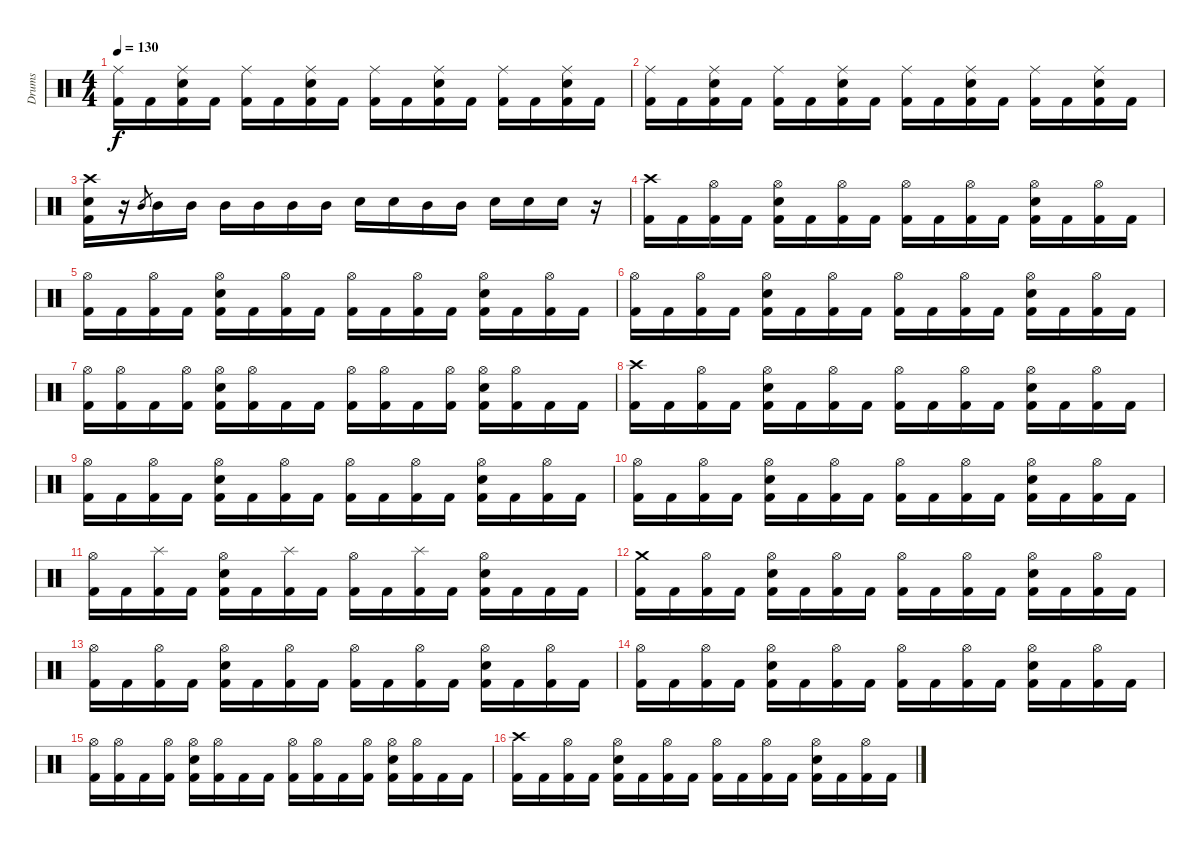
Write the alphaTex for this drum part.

\track ("Drums" "Drums") {instrument percussion}
\staff {score}
\articulation defaults
\ts (4 4)
\tempo 130
\clef neutral
\ks c
("Ride (middle)" "Kick (hit) 2").16{dy f} "Kick (hit) 2".16 ("Ride (middle)" "Electric Snare (hit)" "Kick (hit) 2").16 "Kick (hit) 2".16 ("Ride (middle)" "Kick (hit) 2").16 "Kick (hit) 2".16 ("Ride (middle)" "Electric Snare (hit)" "Kick (hit) 2").16 "Kick (hit) 2".16 ("Ride (middle)" "Kick (hit) 2").16 "Kick (hit) 2".16 ("Ride (middle)" "Electric Snare (hit)" "Kick (hit) 2").16 "Kick (hit) 2".16 ("Ride (middle)" "Kick (hit) 2").16 "Kick (hit) 2".16 ("Ride (middle)" "Electric Snare (hit)" "Kick (hit) 2").16 "Kick (hit) 2".16 |
("Ride (middle)" "Kick (hit) 2").16 "Kick (hit) 2".16 ("Ride (middle)" "Electric Snare (hit)" "Kick (hit) 2").16 "Kick (hit) 2".16 ("Ride (middle)" "Kick (hit) 2").16 "Kick (hit) 2".16 ("Ride (middle)" "Electric Snare (hit)" "Kick (hit) 2").16 "Kick (hit) 2".16 ("Ride (middle)" "Kick (hit) 2").16 "Kick (hit) 2".16 ("Ride (middle)" "Electric Snare (hit)" "Kick (hit) 2").16 "Kick (hit) 2".16 ("Ride (middle)" "Kick (hit) 2").16 "Kick (hit) 2".16 ("Ride (middle)" "Electric Snare (hit)" "Kick (hit) 2").16 "Kick (hit) 2".16 |
("Crash high (hit)" "Electric Snare (hit)" "Kick (hit) 2").16 r.16 "Mid Tom (hit)".8{gr} "Mid Tom (hit)".16 "Mid Tom (hit)".16 "Mid Tom (hit)".16 "Mid Tom (hit)".16 "Mid Tom (hit)".16 "Mid Tom (hit)".16 "Electric Snare (hit)".16 "Electric Snare (hit)".16 "Mid Tom (hit)".16 "Mid Tom (hit)".16 "Electric Snare (hit)".16 "Electric Snare (hit)".16 "Electric Snare (hit)".16 r.16 |
("Crash high (hit)" "Kick (hit) 2").16 "Kick (hit) 2".16 ("Hi-Hat (open)" "Kick (hit) 2").16 "Kick (hit) 2".16 ("Hi-Hat (open)" "Electric Snare (hit)" "Kick (hit) 2").16 "Kick (hit) 2".16 ("Hi-Hat (open)" "Kick (hit) 2").16 "Kick (hit) 2".16 ("Hi-Hat (open)" "Kick (hit) 2").16 "Kick (hit) 2".16 ("Hi-Hat (open)" "Kick (hit) 2").16 "Kick (hit) 2".16 ("Hi-Hat (open)" "Electric Snare (hit)" "Kick (hit) 2").16 "Kick (hit) 2".16 ("Hi-Hat (open)" "Kick (hit) 2").16 "Kick (hit) 2".16 |
("Hi-Hat (open)" "Kick (hit) 2").16 "Kick (hit) 2".16 ("Hi-Hat (open)" "Kick (hit) 2").16 "Kick (hit) 2".16 ("Hi-Hat (open)" "Electric Snare (hit)" "Kick (hit) 2").16 "Kick (hit) 2".16 ("Hi-Hat (open)" "Kick (hit) 2").16 "Kick (hit) 2".16 ("Hi-Hat (open)" "Kick (hit) 2").16 "Kick (hit) 2".16 ("Hi-Hat (open)" "Kick (hit) 2").16 "Kick (hit) 2".16 ("Hi-Hat (open)" "Electric Snare (hit)" "Kick (hit) 2").16 "Kick (hit) 2".16 ("Hi-Hat (open)" "Kick (hit) 2").16 "Kick (hit) 2".16 |
("Hi-Hat (open)" "Kick (hit) 2").16 "Kick (hit) 2".16 ("Hi-Hat (open)" "Kick (hit) 2").16 "Kick (hit) 2".16 ("Hi-Hat (open)" "Electric Snare (hit)" "Kick (hit) 2").16 "Kick (hit) 2".16 ("Hi-Hat (open)" "Kick (hit) 2").16 "Kick (hit) 2".16 ("Hi-Hat (open)" "Kick (hit) 2").16 "Kick (hit) 2".16 ("Hi-Hat (open)" "Kick (hit) 2").16 "Kick (hit) 2".16 ("Hi-Hat (open)" "Electric Snare (hit)" "Kick (hit) 2").16 "Kick (hit) 2".16 ("Hi-Hat (open)" "Kick (hit) 2").16 "Kick (hit) 2".16 |
("Hi-Hat (open)" "Kick (hit) 2").16 ("Hi-Hat (open)" "Kick (hit) 2").16 "Kick (hit) 2".16 ("Hi-Hat (open)" "Kick (hit) 2").16 ("Hi-Hat (open)" "Electric Snare (hit)" "Kick (hit) 2").16 ("Hi-Hat (open)" "Kick (hit) 2").16 "Kick (hit) 2".16 "Kick (hit) 2".16 ("Hi-Hat (open)" "Kick (hit) 2").16 ("Hi-Hat (open)" "Kick (hit) 2").16 "Kick (hit) 2".16 ("Hi-Hat (open)" "Kick (hit) 2").16 ("Hi-Hat (open)" "Electric Snare (hit)" "Kick (hit) 2").16 ("Hi-Hat (open)" "Kick (hit) 2").16 "Kick (hit) 2".16 "Kick (hit) 2".16 |
("Crash high (hit)" "Kick (hit) 2").16 "Kick (hit) 2".16 ("Hi-Hat (open)" "Kick (hit) 2").16 "Kick (hit) 2".16 ("Hi-Hat (open)" "Electric Snare (hit)" "Kick (hit) 2").16 "Kick (hit) 2".16 ("Hi-Hat (open)" "Kick (hit) 2").16 "Kick (hit) 2".16 ("Hi-Hat (open)" "Kick (hit) 2").16 "Kick (hit) 2".16 ("Hi-Hat (open)" "Kick (hit) 2").16 "Kick (hit) 2".16 ("Hi-Hat (open)" "Electric Snare (hit)" "Kick (hit) 2").16 "Kick (hit) 2".16 ("Hi-Hat (open)" "Kick (hit) 2").16 "Kick (hit) 2".16 |
("Hi-Hat (open)" "Kick (hit) 2").16 "Kick (hit) 2".16 ("Hi-Hat (open)" "Kick (hit) 2").16 "Kick (hit) 2".16 ("Hi-Hat (open)" "Electric Snare (hit)" "Kick (hit) 2").16 "Kick (hit) 2".16 ("Hi-Hat (open)" "Kick (hit) 2").16 "Kick (hit) 2".16 ("Hi-Hat (open)" "Kick (hit) 2").16 "Kick (hit) 2".16 ("Hi-Hat (open)" "Kick (hit) 2").16 "Kick (hit) 2".16 ("Hi-Hat (open)" "Electric Snare (hit)" "Kick (hit) 2").16 "Kick (hit) 2".16 ("Hi-Hat (open)" "Kick (hit) 2").16 "Kick (hit) 2".16 |
("Hi-Hat (open)" "Kick (hit) 2").16 "Kick (hit) 2".16 ("Hi-Hat (open)" "Kick (hit) 2").16 "Kick (hit) 2".16 ("Hi-Hat (open)" "Electric Snare (hit)" "Kick (hit) 2").16 "Kick (hit) 2".16 ("Hi-Hat (open)" "Kick (hit) 2").16 "Kick (hit) 2".16 ("Hi-Hat (open)" "Kick (hit) 2").16 "Kick (hit) 2".16 ("Hi-Hat (open)" "Kick (hit) 2").16 "Kick (hit) 2".16 ("Hi-Hat (open)" "Electric Snare (hit)" "Kick (hit) 2").16 "Kick (hit) 2".16 ("Hi-Hat (open)" "Kick (hit) 2").16 "Kick (hit) 2".16 |
("Hi-Hat (open)" "Kick (hit) 2").16 "Kick (hit) 2".16 ("Splash (hit)" "Kick (hit) 2").16 "Kick (hit) 2".16 ("Hi-Hat (open)" "Electric Snare (hit)" "Kick (hit) 2").16 "Kick (hit) 2".16 ("Splash (hit)" "Kick (hit) 2").16 "Kick (hit) 2".16 ("Hi-Hat (open)" "Kick (hit) 2").16 "Kick (hit) 2".16 ("Splash (hit)" "Kick (hit) 2").16 "Kick (hit) 2".16 ("Hi-Hat (open)" "Electric Snare (hit)" "Kick (hit) 2").16 "Kick (hit) 2".16 "Kick (hit) 2".16 "Kick (hit) 2".16 |
("Crash medium (hit)" "Kick (hit) 2").16 "Kick (hit) 2".16 ("Hi-Hat (open)" "Kick (hit) 2").16 "Kick (hit) 2".16 ("Hi-Hat (open)" "Electric Snare (hit)" "Kick (hit) 2").16 "Kick (hit) 2".16 ("Hi-Hat (open)" "Kick (hit) 2").16 "Kick (hit) 2".16 ("Hi-Hat (open)" "Kick (hit) 2").16 "Kick (hit) 2".16 ("Hi-Hat (open)" "Kick (hit) 2").16 "Kick (hit) 2".16 ("Hi-Hat (open)" "Electric Snare (hit)" "Kick (hit) 2").16 "Kick (hit) 2".16 ("Hi-Hat (open)" "Kick (hit) 2").16 "Kick (hit) 2".16 |
("Hi-Hat (open)" "Kick (hit) 2").16 "Kick (hit) 2".16 ("Hi-Hat (open)" "Kick (hit) 2").16 "Kick (hit) 2".16 ("Hi-Hat (open)" "Electric Snare (hit)" "Kick (hit) 2").16 "Kick (hit) 2".16 ("Hi-Hat (open)" "Kick (hit) 2").16 "Kick (hit) 2".16 ("Hi-Hat (open)" "Kick (hit) 2").16 "Kick (hit) 2".16 ("Hi-Hat (open)" "Kick (hit) 2").16 "Kick (hit) 2".16 ("Hi-Hat (open)" "Electric Snare (hit)" "Kick (hit) 2").16 "Kick (hit) 2".16 ("Hi-Hat (open)" "Kick (hit) 2").16 "Kick (hit) 2".16 |
("Hi-Hat (open)" "Kick (hit) 2").16 "Kick (hit) 2".16 ("Hi-Hat (open)" "Kick (hit) 2").16 "Kick (hit) 2".16 ("Hi-Hat (open)" "Electric Snare (hit)" "Kick (hit) 2").16 "Kick (hit) 2".16 ("Hi-Hat (open)" "Kick (hit) 2").16 "Kick (hit) 2".16 ("Hi-Hat (open)" "Kick (hit) 2").16 "Kick (hit) 2".16 ("Hi-Hat (open)" "Kick (hit) 2").16 "Kick (hit) 2".16 ("Hi-Hat (open)" "Electric Snare (hit)" "Kick (hit) 2").16 "Kick (hit) 2".16 ("Hi-Hat (open)" "Kick (hit) 2").16 "Kick (hit) 2".16 |
("Hi-Hat (open)" "Kick (hit) 2").16 ("Hi-Hat (open)" "Kick (hit) 2").16 "Kick (hit) 2".16 ("Hi-Hat (open)" "Kick (hit) 2").16 ("Hi-Hat (open)" "Electric Snare (hit)" "Kick (hit) 2").16 ("Hi-Hat (open)" "Kick (hit) 2").16 "Kick (hit) 2".16 "Kick (hit) 2".16 ("Hi-Hat (open)" "Kick (hit) 2").16 ("Hi-Hat (open)" "Kick (hit) 2").16 "Kick (hit) 2".16 ("Hi-Hat (open)" "Kick (hit) 2").16 ("Hi-Hat (open)" "Electric Snare (hit)" "Kick (hit) 2").16 ("Hi-Hat (open)" "Kick (hit) 2").16 "Kick (hit) 2".16 "Kick (hit) 2".16 |
("Crash high (hit)" "Kick (hit) 2").16 "Kick (hit) 2".16 ("Hi-Hat (open)" "Kick (hit) 2").16 "Kick (hit) 2".16 ("Hi-Hat (open)" "Electric Snare (hit)" "Kick (hit) 2").16 "Kick (hit) 2".16 ("Hi-Hat (open)" "Kick (hit) 2").16 "Kick (hit) 2".16 ("Hi-Hat (open)" "Kick (hit) 2").16 "Kick (hit) 2".16 ("Hi-Hat (open)" "Kick (hit) 2").16 "Kick (hit) 2".16 ("Hi-Hat (open)" "Electric Snare (hit)" "Kick (hit) 2").16 "Kick (hit) 2".16 ("Hi-Hat (open)" "Kick (hit) 2").16 "Kick (hit) 2".16
